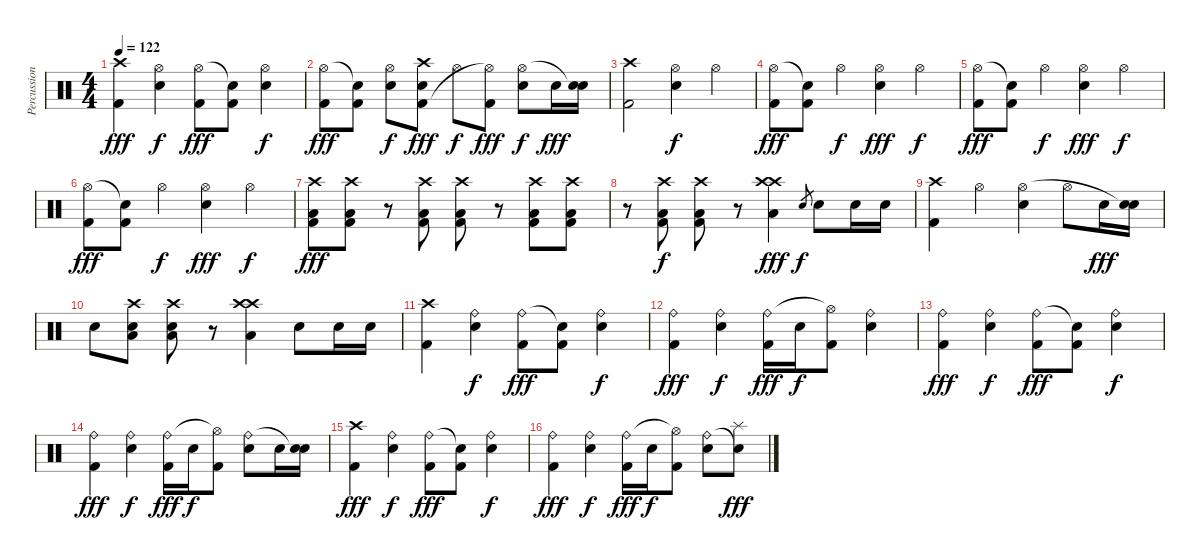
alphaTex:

\track ("Percussions" "Percussion") {instrument percussion}
\staff {score}
\articulation defaults
\ts (4 4)
\tempo 122
\clef neutral
\ks c
("Crash high (hit)" "Kick (hit) 2").4{dy fff} ("Snare (hit) 2" "Hi-Hat (open)").4{dy f} ("Kick (hit) 2" "Hi-Hat (open)").8{dy fff} ("Kick (hit) 2" "Snare (hit)"{t}).8 ("Snare (hit) 2" "Hi-Hat (open)").4{dy f} |
("Kick (hit) 2" "Hi-Hat (open)").8{dy fff} ("Kick (hit) 2" "Snare (hit)"{t}).8 ("Snare (hit) 2" "Hi-Hat (open)").8{dy f} ("Crash high (hit)" "Kick (hit) 2" "Snare (hit)"{t}).8{dy fff} "Hi-Hat (open)".8{dy f} ("Kick (hit) 2" "Hi-Hat (open)"{t}).8{dy fff} ("Snare (hit) 2" "Hi-Hat (open)").8{dy f} "Snare (hit) 2".16{dy fff} ("Snare (hit) 2" "Snare (hit)"{t}).16 |
("Crash high (hit)" "Kick (hit) 2").2 ("Snare (hit) 2" "Hi-Hat (open)").4{dy f} "Hi-Hat (open)".4 |
("Kick (hit) 2" "Hi-Hat (open)").8{dy fff} ("Kick (hit) 2" "Snare (hit)"{t}).8 "Hi-Hat (open)".4{dy f} ("Snare (hit) 2" "Hi-Hat (open)").4{dy fff} "Hi-Hat (open)".4{dy f} |
("Kick (hit) 2" "Hi-Hat (open)").8{dy fff} ("Kick (hit) 2" "Snare (hit)"{t}).8 "Hi-Hat (open)".4{dy f} ("Snare (hit) 2" "Hi-Hat (open)").4{dy fff} "Hi-Hat (open)".4{dy f} |
("Kick (hit) 2" "Hi-Hat (open)").8{dy fff} ("Kick (hit) 2" "Snare (hit)"{t}).8 "Hi-Hat (open)".4{dy f} ("Snare (hit) 2" "Hi-Hat (open)").4{dy fff} "Hi-Hat (open)".4{dy f} |
("Crash high (hit)" "Kick (hit) 2" "Low Tom (hit)").8{dy fff} ("Crash high (hit)" "Kick (hit) 2" "Low Tom (hit)").8 r.8 ("Crash high (hit)" "Kick (hit) 2" "Low Tom (hit)").8 ("Crash high (hit)" "Kick (hit) 2" "Low Tom (hit)").8 r.8 ("Crash high (hit)" "Kick (hit) 2" "Low Tom (hit)").8 ("Crash high (hit)" "Kick (hit) 2" "Low Tom (hit)").8 |
r.8 ("Crash high (hit)" "Kick (hit) 2" "Low Floor Tom (hit)").8{dy f} ("Crash high (hit)" "Kick (hit) 2" "Low Floor Tom (hit)").8 r.8 ("Crash high (hit)" "Crash high (hit)" "Low Floor Tom (hit)").4{dy fff} "Snare (hit) 2".8{gr dy f} "Snare (hit) 2".8 "Snare (hit) 2".16 "Snare (hit) 2".16 |
("Crash high (hit)" "Kick (hit) 2").4 "Hi-Hat (open)".4 ("Snare (hit) 2" "Hi-Hat (open)").4 "Hi-Hat (open)".8 "Snare (hit) 2".16{dy fff} ("Snare (hit) 2" "Snare (hit)"{t}).16 |
"Snare (hit) 2".8 ("Crash high (hit)" "Snare (hit) 2" "Low Tom (hit)").8 ("Crash high (hit)" "Snare (hit) 2" "Low Tom (hit)").8 r.8 ("Crash high (hit)" "Crash high (hit)" "Low Floor Tom (hit)").4 "Snare (hit) 2".8 "Snare (hit) 2".16 "Snare (hit) 2".16 |
("Crash high (hit)" "Kick (hit) 2").4 ("Snare (hit) 2" "Ride (bell)").4{dy f} ("Kick (hit) 2" "Ride (bell)").8{dy fff} ("Kick (hit) 2" "Snare (hit)"{t}).8 ("Snare (hit) 2" "Ride (bell)").4{dy f} |
("Kick (hit) 2" "Ride (bell)").4{dy fff} ("Snare (hit) 2" "Ride (bell)").4{dy f} ("Kick (hit) 2" "Ride (bell)").16{dy fff} "Snare (hit) 2".16{dy f} ("Kick (hit) 2" "Hi-Hat (open)"{t}).8 ("Snare (hit) 2" "Ride (bell)").4 |
("Kick (hit) 2" "Ride (bell)").4{dy fff} ("Snare (hit) 2" "Ride (bell)").4{dy f} ("Kick (hit) 2" "Ride (bell)").8{dy fff} ("Kick (hit) 2" "Snare (hit)"{t}).8 ("Snare (hit) 2" "Ride (bell)").4{dy f} |
("Kick (hit) 2" "Ride (bell)").4{dy fff} ("Snare (hit) 2" "Ride (bell)").4{dy f} ("Kick (hit) 2" "Ride (bell)").16{dy fff} "Snare (hit) 2".16{dy f} ("Kick (hit) 2" "Hi-Hat (open)"{t}).8 ("Snare (hit) 2" "Ride (bell)").8 "Snare (hit) 2".16 ("Snare (hit) 2" "Snare (hit)"{t}).16 |
("Crash high (hit)" "Kick (hit) 2").4{dy fff} ("Snare (hit) 2" "Ride (bell)").4{dy f} ("Kick (hit) 2" "Ride (bell)").8{dy fff} ("Kick (hit) 2" "Snare (hit)"{t}).8 ("Snare (hit) 2" "Ride (bell)").4{dy f} |
("Kick (hit) 2" "Ride (bell)").4{dy fff} ("Snare (hit) 2" "Ride (bell)").4{dy f} ("Kick (hit) 2" "Ride (bell)").16{dy fff} "Snare (hit) 2".16{dy f} ("Kick (hit) 2" "Hi-Hat (open)"{t}).8 ("Snare (hit) 2" "Ride (bell)").8 ("Splash (hit)" "Snare (hit)"{t}).8{dy fff}
